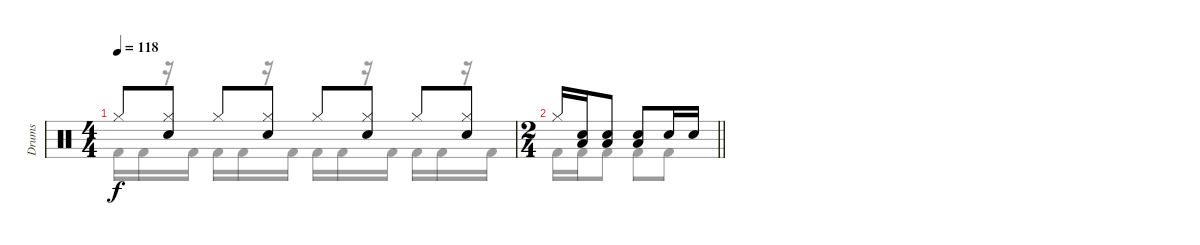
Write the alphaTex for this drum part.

\track ("Drums" "Drums") {instrument percussion}
\staff {score}
\articulation defaults
\voice
\ts (4 4)
\tempo 118
\clef neutral
\ks c "Hi-Hat (closed)".8{dy f}
("Hi-Hat (closed)" "Snare (hit) 2").8 "Hi-Hat (closed)".8 ("Hi-Hat (closed)" "Snare (hit) 2").8 "Hi-Hat (closed)".8 ("Hi-Hat (closed)" "Snare (hit) 2").8 "Hi-Hat (closed)".8 ("Hi-Hat (closed)" "Snare (hit) 2").8 |
\ts (2 4)
\barLineRight lightlight "Hi-Hat (closed)".16
("Snare (hit) 2" "Low Floor Tom (hit)").16 ("Snare (hit) 2" "Low Floor Tom (hit)").8 ("Snare (hit) 2" "Low Floor Tom (hit)").8 "Snare (hit) 2".16 "Snare (hit) 2".16
\voice
\clef neutral
\ottava regular
\simile none
\ks c "Kick (hit) 2".16{dy f} "Kick (hit) 2".16
r.16 "Kick (hit) 2".16 "Kick (hit) 2".16 "Kick (hit) 2".16 r.16 "Kick (hit) 2".16 "Kick (hit) 2".16 "Kick (hit) 2".16 r.16 "Kick (hit) 2".16 "Kick (hit) 2".16 "Kick (hit) 2".16 r.16 "Kick (hit) 2".16 |
\barLineRight lightlight "Kick (hit) 2".16 "Kick (hit) 2".16 "Kick (hit) 2".8 "Kick (hit) 2".8 "Kick (hit) 2".8
